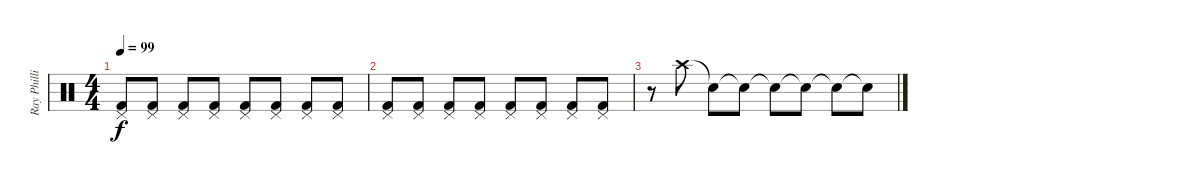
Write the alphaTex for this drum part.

\track ("Ray Phillips" "Ray Philli") {instrument percussion}
\staff {score}
\articulation defaults
\ts (4 4)
\tempo 99
\clef neutral
\ks c
("Kick (hit) 2" "Pedal Hi-Hat (hit)").8{dy f} ("Kick (hit) 2" "Pedal Hi-Hat (hit)").8 ("Kick (hit) 2" "Pedal Hi-Hat (hit)").8 ("Kick (hit) 2" "Pedal Hi-Hat (hit)").8 ("Kick (hit) 2" "Pedal Hi-Hat (hit)").8 ("Kick (hit) 2" "Pedal Hi-Hat (hit)").8 ("Kick (hit) 2" "Pedal Hi-Hat (hit)").8 ("Kick (hit) 2" "Pedal Hi-Hat (hit)").8 |
("Kick (hit) 2" "Pedal Hi-Hat (hit)").8 ("Kick (hit) 2" "Pedal Hi-Hat (hit)").8 ("Kick (hit) 2" "Pedal Hi-Hat (hit)").8 ("Kick (hit) 2" "Pedal Hi-Hat (hit)").8 ("Kick (hit) 2" "Pedal Hi-Hat (hit)").8 ("Kick (hit) 2" "Pedal Hi-Hat (hit)").8 ("Kick (hit) 2" "Pedal Hi-Hat (hit)").8 ("Kick (hit) 2" "Pedal Hi-Hat (hit)").8 |
r.8 "Crash high (hit)".8 "Snare (hit)"{t}.8 "Snare (hit)"{t}.8 "Snare (hit)"{t}.8 "Snare (hit)"{t}.8 "Snare (hit)"{t}.8 "Snare (hit)"{t}.8
